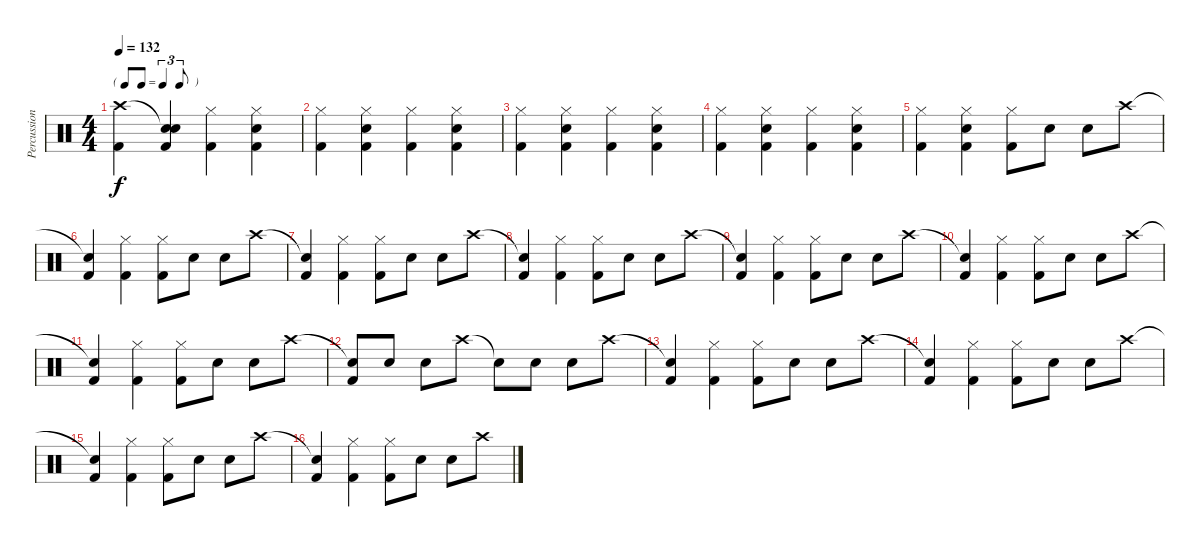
\track ("Percussion" "Percussion") {instrument percussion}
\staff {score}
\articulation defaults
\ts (4 4)
\tf triplet8th
\tempo 132
\clef neutral
\ks c
("Crash high (hit)" "Kick (hit) 2").4{dy f} ("Snare (hit)"{t} "Snare (hit) 2" "Kick (hit) 2").4 ("Hi-Hat (closed)" "Kick (hit) 2").4 ("Hi-Hat (closed)" "Snare (hit) 2" "Kick (hit) 2").4 |
("Hi-Hat (closed)" "Kick (hit) 2").4 ("Hi-Hat (closed)" "Snare (hit) 2" "Kick (hit) 2").4 ("Hi-Hat (closed)" "Kick (hit) 2").4 ("Hi-Hat (closed)" "Snare (hit) 2" "Kick (hit) 2").4 |
("Hi-Hat (closed)" "Kick (hit) 2").4 ("Hi-Hat (closed)" "Snare (hit) 2" "Kick (hit) 2").4 ("Hi-Hat (closed)" "Kick (hit) 2").4 ("Hi-Hat (closed)" "Snare (hit) 2" "Kick (hit) 2").4 |
("Hi-Hat (closed)" "Kick (hit) 2").4 ("Hi-Hat (closed)" "Snare (hit) 2" "Kick (hit) 2").4 ("Hi-Hat (closed)" "Kick (hit) 2").4 ("Hi-Hat (closed)" "Snare (hit) 2" "Kick (hit) 2").4 |
("Hi-Hat (closed)" "Kick (hit) 2").4 ("Hi-Hat (closed)" "Snare (hit) 2" "Kick (hit) 2").4 ("Hi-Hat (closed)" "Kick (hit) 2").8 "Snare (hit) 2".8 "Snare (hit) 2".8 "Crash high (hit)".8 |
("Snare (hit)"{t} "Kick (hit) 2").4 ("Hi-Hat (closed)" "Kick (hit) 2").4 ("Hi-Hat (closed)" "Kick (hit) 2").8 "Snare (hit) 2".8 "Snare (hit) 2".8 "Crash high (hit)".8 |
("Snare (hit)"{t} "Kick (hit) 2").4 ("Hi-Hat (closed)" "Kick (hit) 2").4 ("Hi-Hat (closed)" "Kick (hit) 2").8 "Snare (hit) 2".8 "Snare (hit) 2".8 "Crash high (hit)".8 |
("Snare (hit)"{t} "Kick (hit) 2").4 ("Hi-Hat (closed)" "Kick (hit) 2").4 ("Hi-Hat (closed)" "Kick (hit) 2").8 "Snare (hit) 2".8 "Snare (hit) 2".8 "Crash high (hit)".8 |
("Snare (hit)"{t} "Kick (hit) 2").4 ("Hi-Hat (closed)" "Kick (hit) 2").4 ("Hi-Hat (closed)" "Kick (hit) 2").8 "Snare (hit) 2".8 "Snare (hit) 2".8 "Crash high (hit)".8 |
("Snare (hit)"{t} "Kick (hit) 2").4 ("Hi-Hat (closed)" "Kick (hit) 2").4 ("Hi-Hat (closed)" "Kick (hit) 2").8 "Snare (hit) 2".8 "Snare (hit) 2".8 "Crash high (hit)".8 |
("Snare (hit)"{t} "Kick (hit) 2").4 ("Hi-Hat (closed)" "Kick (hit) 2").4 ("Hi-Hat (closed)" "Kick (hit) 2").8 "Snare (hit) 2".8 "Snare (hit) 2".8 "Crash high (hit)".8 |
("Snare (hit)"{t} "Kick (hit) 2").8 "Snare (hit) 2".8 "Snare (hit) 2".8 "Crash high (hit)".8 "Snare (hit)"{t}.8 "Snare (hit) 2".8 "Snare (hit) 2".8 "Crash high (hit)".8 |
("Snare (hit)"{t} "Kick (hit) 2").4 ("Hi-Hat (closed)" "Kick (hit) 2").4 ("Hi-Hat (closed)" "Kick (hit) 2").8 "Snare (hit) 2".8 "Snare (hit) 2".8 "Crash high (hit)".8 |
("Snare (hit)"{t} "Kick (hit) 2").4 ("Hi-Hat (closed)" "Kick (hit) 2").4 ("Hi-Hat (closed)" "Kick (hit) 2").8 "Snare (hit) 2".8 "Snare (hit) 2".8 "Crash high (hit)".8 |
("Snare (hit)"{t} "Kick (hit) 2").4 ("Hi-Hat (closed)" "Kick (hit) 2").4 ("Hi-Hat (closed)" "Kick (hit) 2").8 "Snare (hit) 2".8 "Snare (hit) 2".8 "Crash high (hit)".8 |
("Snare (hit)"{t} "Kick (hit) 2").4 ("Hi-Hat (closed)" "Kick (hit) 2").4 ("Hi-Hat (closed)" "Kick (hit) 2").8 "Snare (hit) 2".8 "Snare (hit) 2".8 "Crash high (hit)".8
